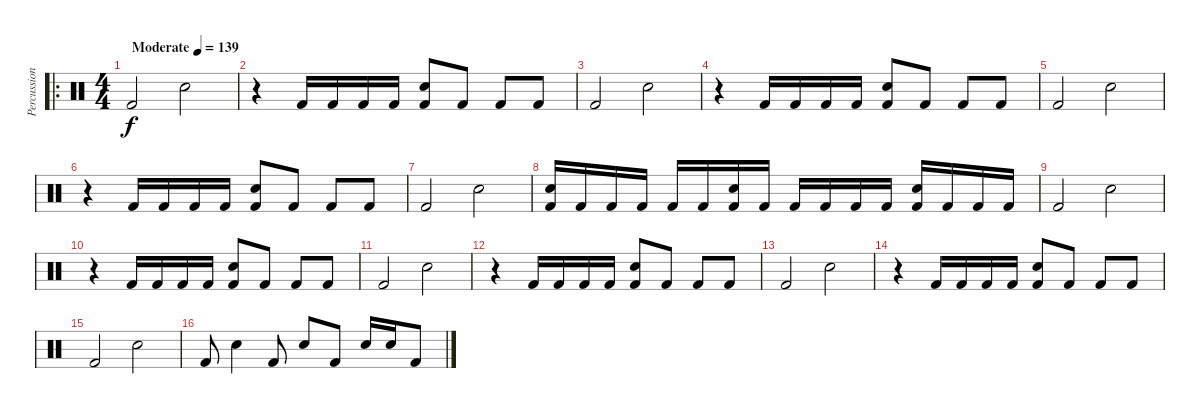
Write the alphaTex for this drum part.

\track ("Percussion" "Percussion") {solo instrument percussion}
\staff {score}
\articulation defaults
\ro
\ts (4 4)
\tempo (139 "Moderate")
\clef neutral
\ks c "Kick (hit) 2".2{dy f} "Snare (hit) 2".2
|
r.4 "Kick (hit) 2".16 "Kick (hit) 2".16 "Kick (hit) 2".16 "Kick (hit) 2".16 ("Snare (hit) 2" "Kick (hit) 2").8 "Kick (hit) 2".8 "Kick (hit) 2".8 "Kick (hit) 2".8 |
"Kick (hit) 2".2 "Snare (hit) 2".2 |
r.4 "Kick (hit) 2".16 "Kick (hit) 2".16 "Kick (hit) 2".16 "Kick (hit) 2".16 ("Snare (hit) 2" "Kick (hit) 2").8 "Kick (hit) 2".8 "Kick (hit) 2".8 "Kick (hit) 2".8 |
"Kick (hit) 2".2 "Snare (hit) 2".2 |
r.4 "Kick (hit) 2".16 "Kick (hit) 2".16 "Kick (hit) 2".16 "Kick (hit) 2".16 ("Snare (hit) 2" "Kick (hit) 2").8 "Kick (hit) 2".8 "Kick (hit) 2".8 "Kick (hit) 2".8 |
"Kick (hit) 2".2 "Snare (hit) 2".2 |
("Snare (hit) 2" "Kick (hit) 2").16 "Kick (hit) 2".16 "Kick (hit) 2".16 "Kick (hit) 2".16 "Kick (hit) 2".16 "Kick (hit) 2".16 ("Snare (hit) 2" "Kick (hit) 2").16 "Kick (hit) 2".16 "Kick (hit) 2".16 "Kick (hit) 2".16 "Kick (hit) 2".16 "Kick (hit) 2".16 ("Snare (hit) 2" "Kick (hit) 2").16 "Kick (hit) 2".16 "Kick (hit) 2".16 "Kick (hit) 2".16 |
"Kick (hit) 2".2 "Snare (hit) 2".2 |
r.4 "Kick (hit) 2".16 "Kick (hit) 2".16 "Kick (hit) 2".16 "Kick (hit) 2".16 ("Snare (hit) 2" "Kick (hit) 2").8 "Kick (hit) 2".8 "Kick (hit) 2".8 "Kick (hit) 2".8 |
"Kick (hit) 2".2 "Snare (hit) 2".2 |
r.4 "Kick (hit) 2".16 "Kick (hit) 2".16 "Kick (hit) 2".16 "Kick (hit) 2".16 ("Snare (hit) 2" "Kick (hit) 2").8 "Kick (hit) 2".8 "Kick (hit) 2".8 "Kick (hit) 2".8 |
"Kick (hit) 2".2 "Snare (hit) 2".2 |
r.4 "Kick (hit) 2".16 "Kick (hit) 2".16 "Kick (hit) 2".16 "Kick (hit) 2".16 ("Snare (hit) 2" "Kick (hit) 2").8 "Kick (hit) 2".8 "Kick (hit) 2".8 "Kick (hit) 2".8 |
"Kick (hit) 2".2 "Snare (hit) 2".2 |
"Kick (hit) 2".8 "Snare (hit) 2".4 "Kick (hit) 2".8 "Snare (hit) 2".8 "Kick (hit) 2".8 "Snare (hit) 2".16 "Snare (hit) 2".16 "Kick (hit) 2".8
